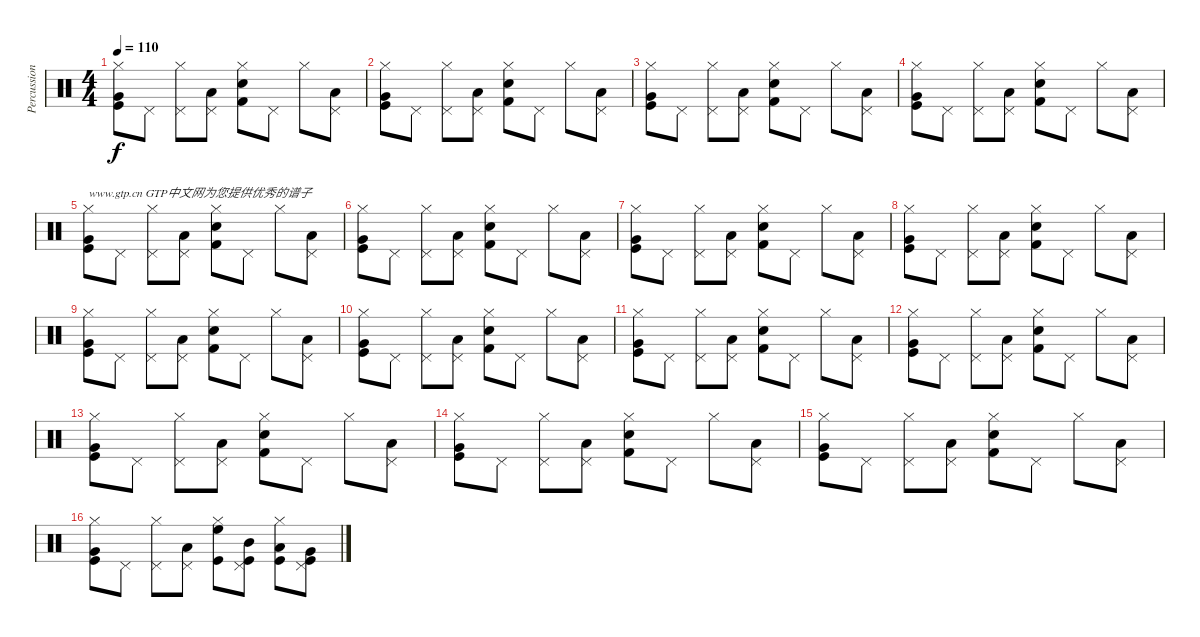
\track ("Percussions" "Percussion") {instrument percussion}
\staff {score}
\articulation defaults
\ts (4 4)
\tempo 110
\clef neutral
\ks c
("Hi-Hat (closed)" "Very Low Tom (hit)" "Kick (hit)").8{dy f} "Pedal Hi-Hat (hit)".8 ("Hi-Hat (closed)" "Pedal Hi-Hat (hit)").8 ("Pedal Hi-Hat (hit)" "Low Tom (hit)").8 ("Hi-Hat (closed)" "Kick (hit) 2" "Snare (hit) 2").8 "Pedal Hi-Hat (hit)".8 "Hi-Hat (closed)".8 ("Pedal Hi-Hat (hit)" "Low Tom (hit)").8 |
("Hi-Hat (closed)" "Very Low Tom (hit)" "Kick (hit)").8 "Pedal Hi-Hat (hit)".8 ("Hi-Hat (closed)" "Pedal Hi-Hat (hit)").8 ("Pedal Hi-Hat (hit)" "Low Tom (hit)").8 ("Hi-Hat (closed)" "Kick (hit) 2" "Snare (hit) 2").8 "Pedal Hi-Hat (hit)".8 "Hi-Hat (closed)".8 ("Pedal Hi-Hat (hit)" "Low Tom (hit)").8 |
("Hi-Hat (closed)" "Very Low Tom (hit)" "Kick (hit)").8 "Pedal Hi-Hat (hit)".8 ("Hi-Hat (closed)" "Pedal Hi-Hat (hit)").8 ("Pedal Hi-Hat (hit)" "Low Tom (hit)").8 ("Hi-Hat (closed)" "Kick (hit) 2" "Snare (hit) 2").8 "Pedal Hi-Hat (hit)".8 "Hi-Hat (closed)".8 ("Pedal Hi-Hat (hit)" "Low Tom (hit)").8 |
("Hi-Hat (closed)" "Very Low Tom (hit)" "Kick (hit)").8 "Pedal Hi-Hat (hit)".8 ("Hi-Hat (closed)" "Pedal Hi-Hat (hit)").8 ("Pedal Hi-Hat (hit)" "Low Tom (hit)").8 ("Hi-Hat (closed)" "Kick (hit) 2" "Snare (hit) 2").8 "Pedal Hi-Hat (hit)".8 "Hi-Hat (closed)".8 ("Pedal Hi-Hat (hit)" "Low Tom (hit)").8 |
("Hi-Hat (closed)" "Very Low Tom (hit)" "Kick (hit)").8{txt "www.gtp.cn GTP中文网为您提供优秀的谱子"} "Pedal Hi-Hat (hit)".8 ("Hi-Hat (closed)" "Pedal Hi-Hat (hit)").8 ("Pedal Hi-Hat (hit)" "Low Tom (hit)").8 ("Hi-Hat (closed)" "Kick (hit) 2" "Snare (hit) 2").8 "Pedal Hi-Hat (hit)".8 "Hi-Hat (closed)".8 ("Pedal Hi-Hat (hit)" "Low Tom (hit)").8 |
("Hi-Hat (closed)" "Very Low Tom (hit)" "Kick (hit)").8 "Pedal Hi-Hat (hit)".8 ("Hi-Hat (closed)" "Pedal Hi-Hat (hit)").8 ("Pedal Hi-Hat (hit)" "Low Tom (hit)").8 ("Hi-Hat (closed)" "Kick (hit) 2" "Snare (hit) 2").8 "Pedal Hi-Hat (hit)".8 "Hi-Hat (closed)".8 ("Pedal Hi-Hat (hit)" "Low Tom (hit)").8 |
("Hi-Hat (closed)" "Very Low Tom (hit)" "Kick (hit)").8 "Pedal Hi-Hat (hit)".8 ("Hi-Hat (closed)" "Pedal Hi-Hat (hit)").8 ("Pedal Hi-Hat (hit)" "Low Tom (hit)").8 ("Hi-Hat (closed)" "Kick (hit) 2" "Snare (hit) 2").8 "Pedal Hi-Hat (hit)".8 "Hi-Hat (closed)".8 ("Pedal Hi-Hat (hit)" "Low Tom (hit)").8 |
("Hi-Hat (closed)" "Very Low Tom (hit)" "Kick (hit)").8 "Pedal Hi-Hat (hit)".8 ("Hi-Hat (closed)" "Pedal Hi-Hat (hit)").8 ("Pedal Hi-Hat (hit)" "Low Tom (hit)").8 ("Hi-Hat (closed)" "Kick (hit) 2" "Snare (hit) 2").8 "Pedal Hi-Hat (hit)".8 "Hi-Hat (closed)".8 ("Pedal Hi-Hat (hit)" "Low Tom (hit)").8 |
("Hi-Hat (closed)" "Very Low Tom (hit)" "Kick (hit)").8 "Pedal Hi-Hat (hit)".8 ("Hi-Hat (closed)" "Pedal Hi-Hat (hit)").8 ("Pedal Hi-Hat (hit)" "Low Tom (hit)").8 ("Hi-Hat (closed)" "Kick (hit) 2" "Snare (hit) 2").8 "Pedal Hi-Hat (hit)".8 "Hi-Hat (closed)".8 ("Pedal Hi-Hat (hit)" "Low Tom (hit)").8 |
("Hi-Hat (closed)" "Very Low Tom (hit)" "Kick (hit)").8 "Pedal Hi-Hat (hit)".8 ("Hi-Hat (closed)" "Pedal Hi-Hat (hit)").8 ("Pedal Hi-Hat (hit)" "Low Tom (hit)").8 ("Hi-Hat (closed)" "Kick (hit) 2" "Snare (hit) 2").8 "Pedal Hi-Hat (hit)".8 "Hi-Hat (closed)".8 ("Pedal Hi-Hat (hit)" "Low Tom (hit)").8 |
("Hi-Hat (closed)" "Very Low Tom (hit)" "Kick (hit)").8 "Pedal Hi-Hat (hit)".8 ("Hi-Hat (closed)" "Pedal Hi-Hat (hit)").8 ("Pedal Hi-Hat (hit)" "Low Tom (hit)").8 ("Hi-Hat (closed)" "Kick (hit) 2" "Snare (hit) 2").8 "Pedal Hi-Hat (hit)".8 "Hi-Hat (closed)".8 ("Pedal Hi-Hat (hit)" "Low Tom (hit)").8 |
("Hi-Hat (closed)" "Very Low Tom (hit)" "Kick (hit)").8 "Pedal Hi-Hat (hit)".8 ("Hi-Hat (closed)" "Pedal Hi-Hat (hit)").8 ("Pedal Hi-Hat (hit)" "Low Tom (hit)").8 ("Hi-Hat (closed)" "Kick (hit) 2" "Snare (hit) 2").8 "Pedal Hi-Hat (hit)".8 "Hi-Hat (closed)".8 ("Pedal Hi-Hat (hit)" "Low Tom (hit)").8 |
("Hi-Hat (closed)" "Very Low Tom (hit)" "Kick (hit)").8 "Pedal Hi-Hat (hit)".8 ("Hi-Hat (closed)" "Pedal Hi-Hat (hit)").8 ("Pedal Hi-Hat (hit)" "Low Tom (hit)").8 ("Hi-Hat (closed)" "Kick (hit) 2" "Snare (hit) 2").8 "Pedal Hi-Hat (hit)".8 "Hi-Hat (closed)".8 ("Pedal Hi-Hat (hit)" "Low Tom (hit)").8 |
("Hi-Hat (closed)" "Very Low Tom (hit)" "Kick (hit)").8 "Pedal Hi-Hat (hit)".8 ("Hi-Hat (closed)" "Pedal Hi-Hat (hit)").8 ("Pedal Hi-Hat (hit)" "Low Tom (hit)").8 ("Hi-Hat (closed)" "Kick (hit) 2" "Snare (hit) 2").8 "Pedal Hi-Hat (hit)".8 "Hi-Hat (closed)".8 ("Pedal Hi-Hat (hit)" "Low Tom (hit)").8 |
("Hi-Hat (closed)" "Very Low Tom (hit)" "Kick (hit)").8 "Pedal Hi-Hat (hit)".8 ("Hi-Hat (closed)" "Pedal Hi-Hat (hit)").8 ("Pedal Hi-Hat (hit)" "Low Tom (hit)").8 ("Hi-Hat (closed)" "Kick (hit) 2" "Snare (hit) 2").8 "Pedal Hi-Hat (hit)".8 "Hi-Hat (closed)".8 ("Pedal Hi-Hat (hit)" "Low Tom (hit)").8 |
("Hi-Hat (closed)" "Very Low Tom (hit)" "Kick (hit)").8 "Pedal Hi-Hat (hit)".8 ("Hi-Hat (closed)" "Pedal Hi-Hat (hit)").8 ("Pedal Hi-Hat (hit)" "Low Tom (hit)").8 ("Hi-Hat (closed)" "Kick (hit)" "High Floor Tom (hit)").8 ("Pedal Hi-Hat (hit)" "Mid Tom (hit)" "Kick (hit)").8 ("Hi-Hat (closed)" "Low Tom (hit)" "Kick (hit)").8 ("Kick (hit)" "Pedal Hi-Hat (hit)" "Very Low Tom (hit)").8
